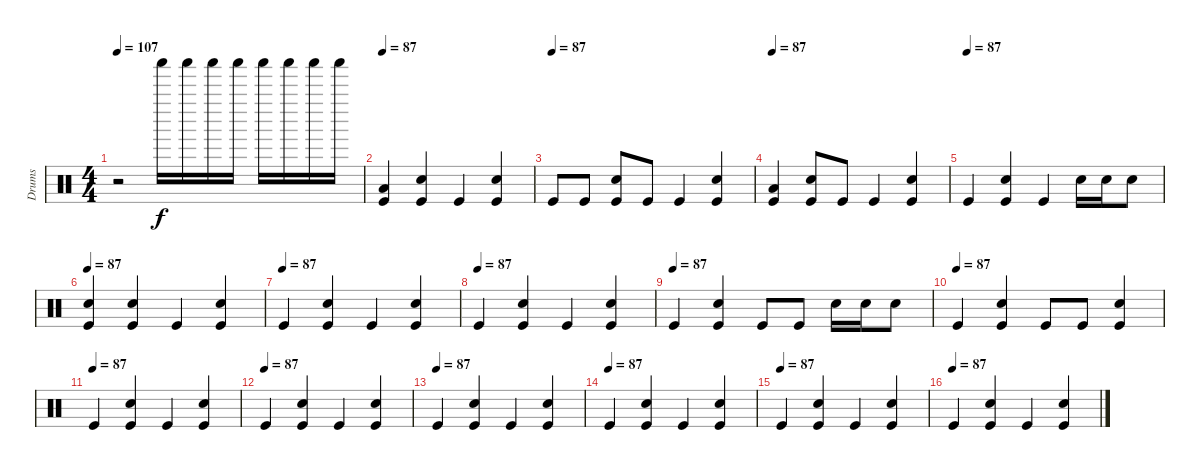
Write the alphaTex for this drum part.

\track ("Drums" "Drums") {instrument percussion}
\staff {score}
\articulation defaults
\ts (4 4)
\tempo 107
\clef neutral
\ks c
r.2{dy f} "Shaker (hit)".16{volume 2} "Shaker (hit)".16{volume 4} "Shaker (hit)".16{volume 6} "Shaker (hit)".16{volume 8} "Shaker (hit)".16{volume 10} "Shaker (hit)".16{volume 12} "Shaker (hit)".16{volume 14} "Shaker (hit)".16{volume 16} |
\tempo 87
("Low Floor Tom (hit)" "Kick (hit)").4{volume 10} ("Snare (hit) 2" "Kick (hit)").4 "Kick (hit)".4 ("Snare (hit) 2" "Kick (hit)").4 |
\tempo (87)
"Kick (hit)".8 "Kick (hit)".8 ("Snare (hit) 2" "Kick (hit)").8 "Kick (hit)".8 "Kick (hit)".4 ("Snare (hit) 2" "Kick (hit)").4 |
\tempo 87
("Low Floor Tom (hit)" "Kick (hit)").4 ("Snare (hit) 2" "Kick (hit)").8 "Kick (hit)".8 "Kick (hit)".4 ("Snare (hit) 2" "Kick (hit)").4 |
\tempo (87)
"Kick (hit)".4 ("Snare (hit) 2" "Kick (hit)").4 "Kick (hit)".4 "Snare (hit) 2".16 "Snare (hit) 2".16 "Snare (hit) 2".8 |
\tempo 87
("Snare (hit) 2" "Kick (hit)").4 ("Snare (hit) 2" "Kick (hit)").4 "Kick (hit)".4 ("Snare (hit) 2" "Kick (hit)").4 |
\tempo (87)
"Kick (hit)".4 ("Snare (hit) 2" "Kick (hit)").4 "Kick (hit)".4 ("Snare (hit) 2" "Kick (hit)").4 |
\tempo (87)
"Kick (hit)".4 ("Snare (hit) 2" "Kick (hit)").4 "Kick (hit)".4 ("Snare (hit) 2" "Kick (hit)").4 |
\tempo (87)
"Kick (hit)".4 ("Snare (hit) 2" "Kick (hit)").4 "Kick (hit)".8 "Kick (hit)".8 "Snare (hit) 2".16 "Snare (hit) 2".16 "Snare (hit) 2".8 |
\tempo (87)
"Kick (hit)".4 ("Snare (hit) 2" "Kick (hit)").4 "Kick (hit)".8 "Kick (hit)".8 ("Snare (hit) 2" "Kick (hit)").4 |
\tempo (87)
"Kick (hit)".4 ("Snare (hit) 2" "Kick (hit)").4 "Kick (hit)".4 ("Snare (hit) 2" "Kick (hit)").4 |
\tempo (87)
"Kick (hit)".4 ("Snare (hit) 2" "Kick (hit)").4 "Kick (hit)".4 ("Snare (hit) 2" "Kick (hit)").4 |
\tempo (87)
"Kick (hit)".4 ("Snare (hit) 2" "Kick (hit)").4 "Kick (hit)".4 ("Snare (hit) 2" "Kick (hit)").4 |
\tempo (87)
"Kick (hit)".4 ("Snare (hit) 2" "Kick (hit)").4 "Kick (hit)".4 ("Snare (hit) 2" "Kick (hit)").4 |
\tempo (87)
"Kick (hit)".4 ("Snare (hit) 2" "Kick (hit)").4 "Kick (hit)".4 ("Snare (hit) 2" "Kick (hit)").4 |
\tempo (87)
"Kick (hit)".4 ("Snare (hit) 2" "Kick (hit)").4 "Kick (hit)".4 ("Snare (hit) 2" "Kick (hit)").4
